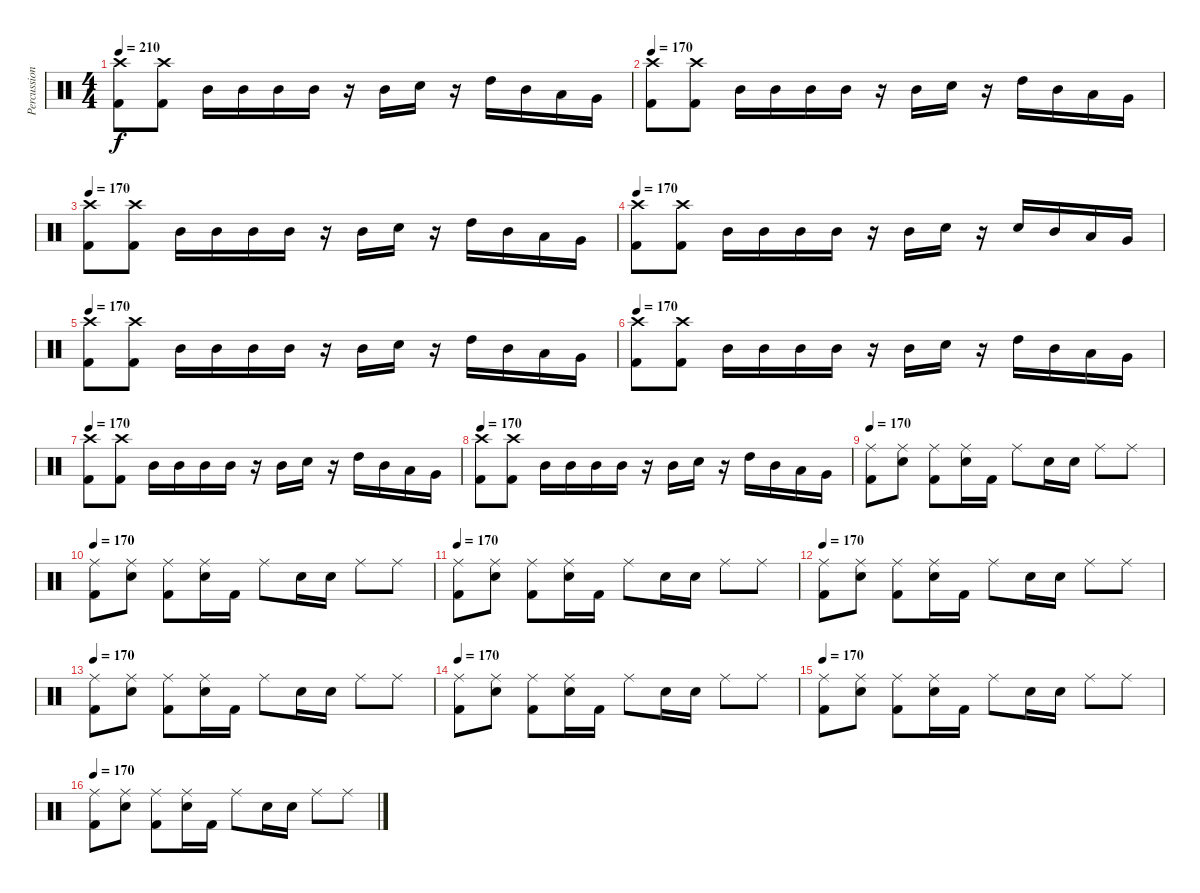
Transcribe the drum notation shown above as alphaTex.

\track ("Percussions" "Percussion") {instrument percussion}
\staff {score}
\articulation defaults
\ts (4 4)
\tempo 210
\tempo 170
\tempo 210
\clef neutral
\ks c
("Crash high (hit)" "Kick (hit) 2").8{dy f} ("Crash high (hit)" "Kick (hit) 2").8 "Mid Tom (hit)".16 "Mid Tom (hit)".16 "Mid Tom (hit)".16 "Mid Tom (hit)".16 r.16 "Mid Tom (hit)".16 "Snare (hit) 2".16 r.16 "High Tom (hit)".16 "Mid Tom (hit)".16 "Low Tom (hit)".16 "Very Low Tom (hit)".16 |
\tempo 170
("Crash high (hit)" "Kick (hit) 2").8 ("Crash high (hit)" "Kick (hit) 2").8 "Mid Tom (hit)".16 "Mid Tom (hit)".16 "Mid Tom (hit)".16 "Mid Tom (hit)".16 r.16 "Mid Tom (hit)".16 "Snare (hit) 2".16 r.16 "High Tom (hit)".16 "Mid Tom (hit)".16 "Low Tom (hit)".16 "Very Low Tom (hit)".16 |
\tempo 170
("Crash high (hit)" "Kick (hit) 2").8 ("Crash high (hit)" "Kick (hit) 2").8 "Mid Tom (hit)".16 "Mid Tom (hit)".16 "Mid Tom (hit)".16 "Mid Tom (hit)".16 r.16 "Mid Tom (hit)".16 "Snare (hit) 2".16 r.16 "High Tom (hit)".16 "Mid Tom (hit)".16 "Low Tom (hit)".16 "Very Low Tom (hit)".16 |
\tempo 170
("Crash high (hit)" "Kick (hit) 2").8 ("Crash high (hit)" "Kick (hit) 2").8 "Mid Tom (hit)".16 "Mid Tom (hit)".16 "Mid Tom (hit)".16 "Mid Tom (hit)".16 r.16 "Mid Tom (hit)".16 "Snare (hit) 2".16 r.16 "Snare (hit) 2".16 "Mid Tom (hit)".16 "Low Tom (hit)".16 "Very Low Tom (hit)".16 |
\tempo 170
("Crash high (hit)" "Kick (hit) 2").8 ("Crash high (hit)" "Kick (hit) 2").8 "Mid Tom (hit)".16 "Mid Tom (hit)".16 "Mid Tom (hit)".16 "Mid Tom (hit)".16 r.16 "Mid Tom (hit)".16 "Snare (hit) 2".16 r.16 "High Tom (hit)".16 "Mid Tom (hit)".16 "Low Tom (hit)".16 "Very Low Tom (hit)".16 |
\tempo 170
("Crash high (hit)" "Kick (hit) 2").8 ("Crash high (hit)" "Kick (hit) 2").8 "Mid Tom (hit)".16 "Mid Tom (hit)".16 "Mid Tom (hit)".16 "Mid Tom (hit)".16 r.16 "Mid Tom (hit)".16 "Snare (hit) 2".16 r.16 "High Tom (hit)".16 "Mid Tom (hit)".16 "Low Tom (hit)".16 "Very Low Tom (hit)".16 |
\tempo 170
("Crash high (hit)" "Kick (hit) 2").8 ("Crash high (hit)" "Kick (hit) 2").8 "Mid Tom (hit)".16 "Mid Tom (hit)".16 "Mid Tom (hit)".16 "Mid Tom (hit)".16 r.16 "Mid Tom (hit)".16 "Snare (hit) 2".16 r.16 "High Tom (hit)".16 "Mid Tom (hit)".16 "Low Tom (hit)".16 "Very Low Tom (hit)".16 |
\tempo 170
("Crash high (hit)" "Kick (hit) 2").8 ("Crash high (hit)" "Kick (hit) 2").8 "Mid Tom (hit)".16 "Mid Tom (hit)".16 "Mid Tom (hit)".16 "Mid Tom (hit)".16 r.16 "Mid Tom (hit)".16 "Snare (hit) 2".16 r.16 "High Tom (hit)".16 "Mid Tom (hit)".16 "Low Tom (hit)".16 "Very Low Tom (hit)".16 |
\tempo 170
("Ride (middle)" "Kick (hit) 2").8 ("Ride (middle)" "Snare (hit) 2").8 ("Ride (middle)" "Kick (hit) 2").8 ("Ride (middle)" "Snare (hit) 2").16 "Kick (hit) 2".16 "Ride (middle)".8 "Snare (hit) 2".16 "Snare (hit) 2".16 "Ride (middle)".8 "Ride (middle)".8 |
\tempo 170
("Ride (middle)" "Kick (hit) 2").8 ("Ride (middle)" "Snare (hit) 2").8 ("Ride (middle)" "Kick (hit) 2").8 ("Ride (middle)" "Snare (hit) 2").16 "Kick (hit) 2".16 "Ride (middle)".8 "Snare (hit) 2".16 "Snare (hit) 2".16 "Ride (middle)".8 "Ride (middle)".8 |
\tempo 170
("Ride (middle)" "Kick (hit) 2").8 ("Ride (middle)" "Snare (hit) 2").8 ("Ride (middle)" "Kick (hit) 2").8 ("Ride (middle)" "Snare (hit) 2").16 "Kick (hit) 2".16 "Ride (middle)".8 "Snare (hit) 2".16 "Snare (hit) 2".16 "Ride (middle)".8 "Ride (middle)".8 |
\tempo 170
("Ride (middle)" "Kick (hit) 2").8 ("Ride (middle)" "Snare (hit) 2").8 ("Ride (middle)" "Kick (hit) 2").8 ("Ride (middle)" "Snare (hit) 2").16 "Kick (hit) 2".16 "Ride (middle)".8 "Snare (hit) 2".16 "Snare (hit) 2".16 "Ride (middle)".8 "Ride (middle)".8 |
\tempo 170
("Ride (middle)" "Kick (hit) 2").8 ("Ride (middle)" "Snare (hit) 2").8 ("Ride (middle)" "Kick (hit) 2").8 ("Ride (middle)" "Snare (hit) 2").16 "Kick (hit) 2".16 "Ride (middle)".8 "Snare (hit) 2".16 "Snare (hit) 2".16 "Ride (middle)".8 "Ride (middle)".8 |
\tempo 170
("Ride (middle)" "Kick (hit) 2").8 ("Ride (middle)" "Snare (hit) 2").8 ("Ride (middle)" "Kick (hit) 2").8 ("Ride (middle)" "Snare (hit) 2").16 "Kick (hit) 2".16 "Ride (middle)".8 "Snare (hit) 2".16 "Snare (hit) 2".16 "Ride (middle)".8 "Ride (middle)".8 |
\tempo 170
("Ride (middle)" "Kick (hit) 2").8 ("Ride (middle)" "Snare (hit) 2").8 ("Ride (middle)" "Kick (hit) 2").8 ("Ride (middle)" "Snare (hit) 2").16 "Kick (hit) 2".16 "Ride (middle)".8 "Snare (hit) 2".16 "Snare (hit) 2".16 "Ride (middle)".8 "Ride (middle)".8 |
\tempo 170
("Ride (middle)" "Kick (hit) 2").8 ("Ride (middle)" "Snare (hit) 2").8 ("Ride (middle)" "Kick (hit) 2").8 ("Ride (middle)" "Snare (hit) 2").16 "Kick (hit) 2".16 "Ride (middle)".8 "Snare (hit) 2".16 "Snare (hit) 2".16 "Ride (middle)".8 "Ride (middle)".8
